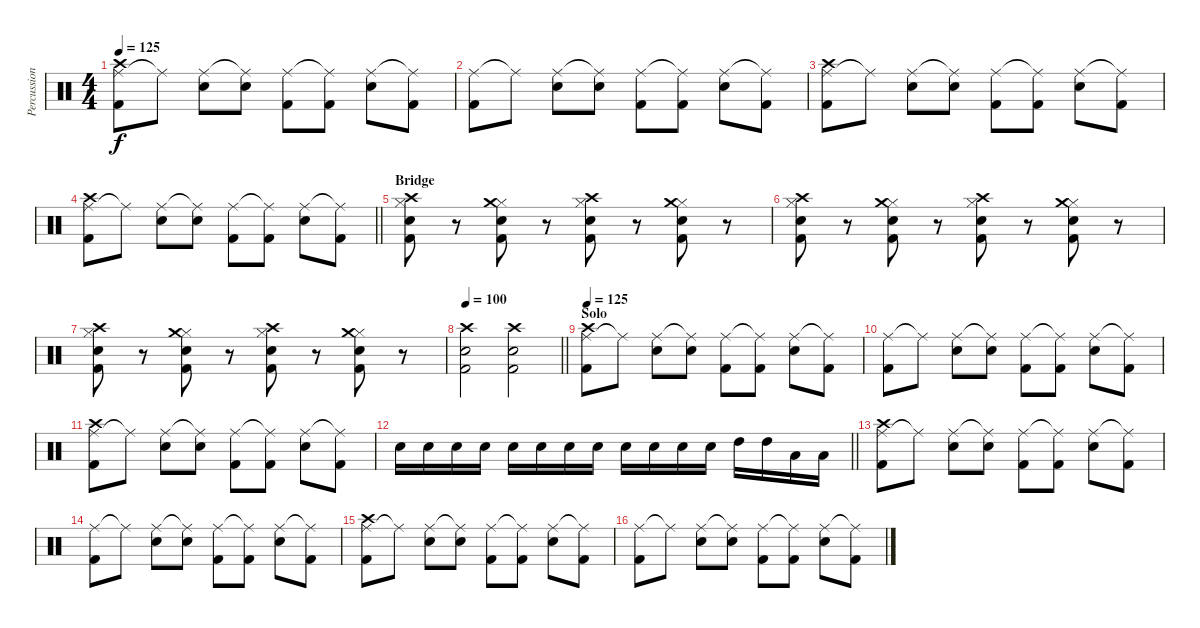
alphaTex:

\track ("Percussion" "Percussion") {instrument percussion}
\staff {score}
\articulation defaults
\ts (4 4)
\tempo 125
\clef neutral
\ks c
("Ride (middle)" "Crash high (hit)" "Kick (hit) 2").8{dy f} "Ride (middle)"{t}.8 ("Ride (middle)" "Snare (hit) 2").8 ("Ride (middle)"{t} "Snare (hit) 2").8 ("Ride (middle)" "Kick (hit) 2").8 ("Ride (middle)"{t} "Kick (hit) 2").8 ("Ride (middle)" "Snare (hit) 2").8 ("Ride (middle)"{t} "Kick (hit) 2").8 |
("Ride (middle)" "Kick (hit) 2").8 "Ride (middle)"{t}.8 ("Ride (middle)" "Snare (hit) 2").8 ("Ride (middle)"{t} "Snare (hit) 2").8 ("Ride (middle)" "Kick (hit) 2").8 ("Ride (middle)"{t} "Kick (hit) 2").8 ("Ride (middle)" "Snare (hit) 2").8 ("Ride (middle)"{t} "Kick (hit) 2").8 |
("Ride (middle)" "Crash high (hit)" "Kick (hit) 2").8 "Ride (middle)"{t}.8 ("Ride (middle)" "Snare (hit) 2").8 ("Ride (middle)"{t} "Snare (hit) 2").8 ("Ride (middle)" "Kick (hit) 2").8 ("Ride (middle)"{t} "Kick (hit) 2").8 ("Ride (middle)" "Snare (hit) 2").8 ("Ride (middle)"{t} "Kick (hit) 2").8 |
\barLineRight lightlight
("Ride (middle)" "Crash high (hit)" "Kick (hit) 2").8 "Ride (middle)"{t}.8 ("Ride (middle)" "Snare (hit) 2").8 ("Ride (middle)"{t} "Snare (hit) 2").8 ("Ride (middle)" "Kick (hit) 2").8 ("Ride (middle)"{t} "Kick (hit) 2").8 ("Ride (middle)" "Snare (hit) 2").8 ("Ride (middle)"{t} "Kick (hit) 2").8 |
\section ("" "Bridge")
("Hi-Hat (closed)" "Crash high (hit)" "Snare (hit) 2" "Kick (hit) 2").8 r.8 ("Hi-Hat (closed)" "Crash medium (hit)" "Snare (hit) 2" "Kick (hit) 2").8 r.8 ("Hi-Hat (closed)" "Crash high (hit)" "Snare (hit) 2" "Kick (hit) 2").8 r.8 ("Hi-Hat (closed)" "Crash medium (hit)" "Snare (hit) 2" "Kick (hit) 2").8 r.8 |
("Hi-Hat (closed)" "Crash high (hit)" "Snare (hit) 2" "Kick (hit) 2").8 r.8 ("Hi-Hat (closed)" "Crash medium (hit)" "Snare (hit) 2" "Kick (hit) 2").8 r.8 ("Hi-Hat (closed)" "Crash high (hit)" "Snare (hit) 2" "Kick (hit) 2").8 r.8 ("Hi-Hat (closed)" "Crash medium (hit)" "Snare (hit) 2" "Kick (hit) 2").8 r.8 |
("Hi-Hat (closed)" "Crash high (hit)" "Snare (hit) 2" "Kick (hit) 2").8 r.8 ("Hi-Hat (closed)" "Crash medium (hit)" "Snare (hit) 2" "Kick (hit) 2").8 r.8 ("Hi-Hat (closed)" "Crash high (hit)" "Snare (hit) 2" "Kick (hit) 2").8 r.8 ("Hi-Hat (closed)" "Crash medium (hit)" "Snare (hit) 2" "Kick (hit) 2").8 r.8 |
\tempo 100
\barLineRight lightlight
("Crash high (hit)" "Snare (hit) 2" "Kick (hit) 2").2 ("Crash high (hit)" "Snare (hit) 2" "Kick (hit) 2").2 |
\section ("" "Solo")
\tempo 125
("Ride (middle)" "Crash high (hit)" "Kick (hit) 2").8 "Ride (middle)"{t}.8 ("Ride (middle)" "Snare (hit) 2").8 ("Ride (middle)"{t} "Snare (hit) 2").8 ("Ride (middle)" "Kick (hit) 2").8 ("Ride (middle)"{t} "Kick (hit) 2").8 ("Ride (middle)" "Snare (hit) 2").8 ("Ride (middle)"{t} "Kick (hit) 2").8 |
("Ride (middle)" "Kick (hit) 2").8 "Ride (middle)"{t}.8 ("Ride (middle)" "Snare (hit) 2").8 ("Ride (middle)"{t} "Snare (hit) 2").8 ("Ride (middle)" "Kick (hit) 2").8 ("Ride (middle)"{t} "Kick (hit) 2").8 ("Ride (middle)" "Snare (hit) 2").8 ("Ride (middle)"{t} "Kick (hit) 2").8 |
("Ride (middle)" "Crash high (hit)" "Kick (hit) 2").8 "Ride (middle)"{t}.8 ("Ride (middle)" "Snare (hit) 2").8 ("Ride (middle)"{t} "Snare (hit) 2").8 ("Ride (middle)" "Kick (hit) 2").8 ("Ride (middle)"{t} "Kick (hit) 2").8 ("Ride (middle)" "Snare (hit) 2").8 ("Ride (middle)"{t} "Kick (hit) 2").8 |
\barLineRight lightlight "Snare (hit) 2".16 "Snare (hit) 2".16 "Snare (hit) 2".16 "Snare (hit) 2".16 "Snare (hit) 2".16 "Snare (hit) 2".16 "Snare (hit) 2".16 "Snare (hit) 2".16 "Snare (hit) 2".16 "Snare (hit) 2".16 "Snare (hit) 2".16 "Snare (hit) 2".16 "High Tom (hit)".16 "High Tom (hit)".16 "Low Tom (hit)".16 "Low Tom (hit)".16
|
("Ride (middle)" "Crash high (hit)" "Kick (hit) 2").8 "Ride (middle)"{t}.8 ("Ride (middle)" "Snare (hit) 2").8 ("Ride (middle)"{t} "Snare (hit) 2").8 ("Ride (middle)" "Kick (hit) 2").8 ("Ride (middle)"{t} "Kick (hit) 2").8 ("Ride (middle)" "Snare (hit) 2").8 ("Ride (middle)"{t} "Kick (hit) 2").8 |
("Ride (middle)" "Kick (hit) 2").8 "Ride (middle)"{t}.8 ("Ride (middle)" "Snare (hit) 2").8 ("Ride (middle)"{t} "Snare (hit) 2").8 ("Ride (middle)" "Kick (hit) 2").8 ("Ride (middle)"{t} "Kick (hit) 2").8 ("Ride (middle)" "Snare (hit) 2").8 ("Ride (middle)"{t} "Kick (hit) 2").8 |
("Ride (middle)" "Crash high (hit)" "Kick (hit) 2").8 "Ride (middle)"{t}.8 ("Ride (middle)" "Snare (hit) 2").8 ("Ride (middle)"{t} "Snare (hit) 2").8 ("Ride (middle)" "Kick (hit) 2").8 ("Ride (middle)"{t} "Kick (hit) 2").8 ("Ride (middle)" "Snare (hit) 2").8 ("Ride (middle)"{t} "Kick (hit) 2").8 |
("Ride (middle)" "Kick (hit) 2").8 "Ride (middle)"{t}.8 ("Ride (middle)" "Snare (hit) 2").8 ("Ride (middle)"{t} "Snare (hit) 2").8 ("Ride (middle)" "Kick (hit) 2").8 ("Ride (middle)"{t} "Kick (hit) 2").8 ("Ride (middle)" "Snare (hit) 2").8 ("Ride (middle)"{t} "Kick (hit) 2").8
